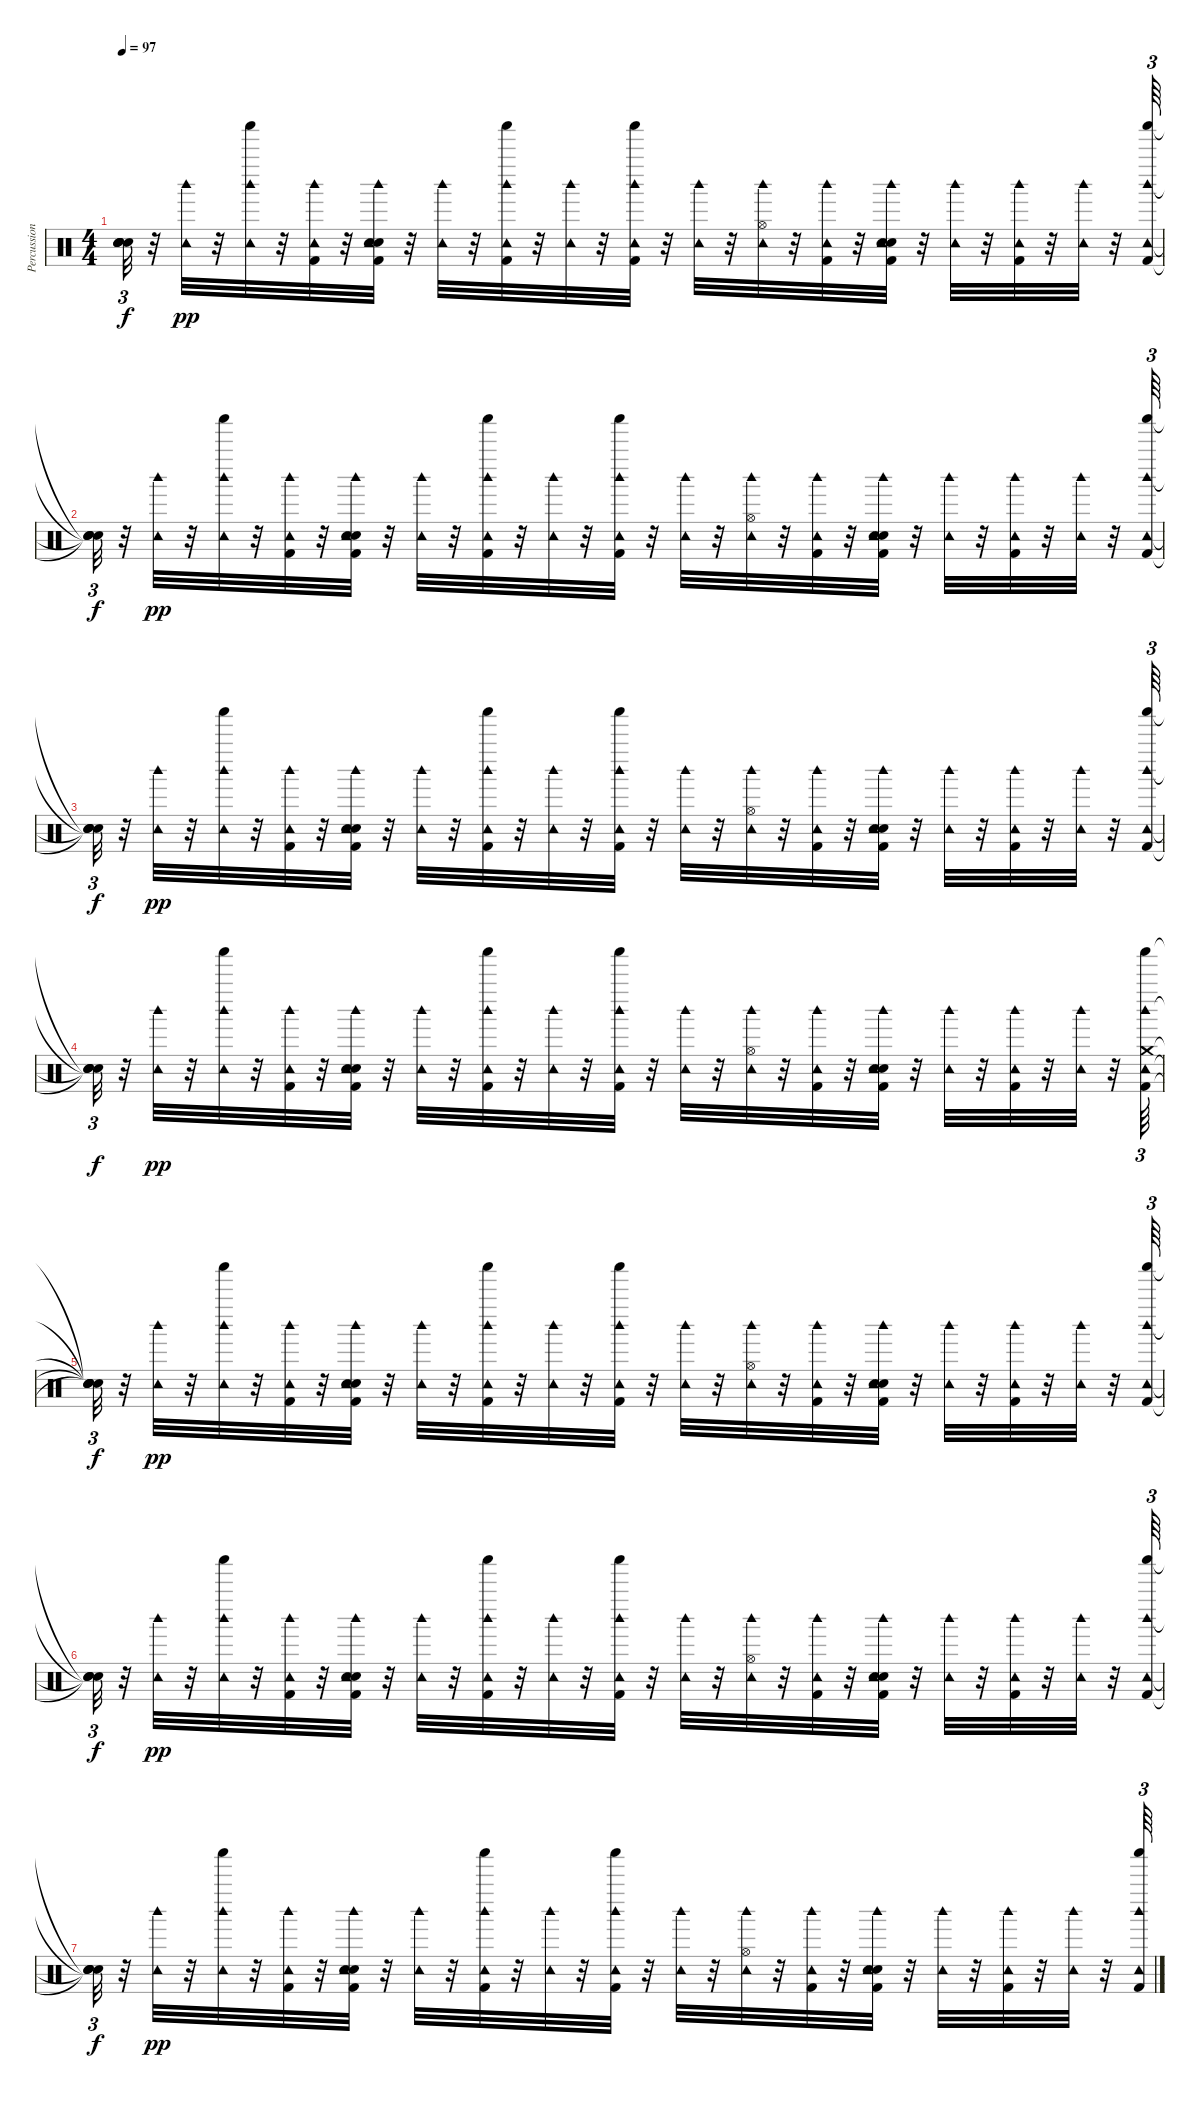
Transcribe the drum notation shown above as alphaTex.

\track ("Percussion" "Percussion") {instrument percussion}
\staff {score}
\articulation defaults
\ts (4 4)
\tempo 97
\clef neutral
\ks c
("Snare (hit)"{t} "Snare (hit)"{t} "Snare (hit)"{t} "Snare (hit)"{t} "Snare (hit)"{t}).32{tu (3 2) dy f} r.32 ("Tambourine (hit)" "Woodblock high (hit)").32{dy pp} r.32 ("Tambourine (hit)" "Shaker (hit)" "Woodblock high (hit)").32 r.32 ("Kick (hit) 2" "Tambourine (hit)" "Woodblock high (hit)").32 r.32 ("Kick (hit) 2" "Snare (hit) 2" "Hand Clap (hit)" "Tambourine (hit)" "Woodblock high (hit)").32 r.32 ("Tambourine (hit)" "Woodblock high (hit)").32 r.32 ("Kick (hit) 2" "Tambourine (hit)" "Shaker (hit)" "Woodblock high (hit)").32 r.32 ("Tambourine (hit)" "Woodblock high (hit)").32 r.32 ("Kick (hit) 2" "Tambourine (hit)" "Shaker (hit)" "Woodblock high (hit)").32 r.32 ("Tambourine (hit)" "Woodblock high (hit)").32 r.32 ("Hi-Hat (open)" "Tambourine (hit)" "Woodblock high (hit)").32 r.32 ("Kick (hit) 2" "Tambourine (hit)" "Woodblock high (hit)").32 r.32 ("Kick (hit) 2" "Snare (hit) 2" "Hand Clap (hit)" "Tambourine (hit)" "Woodblock high (hit)").32 r.32 ("Tambourine (hit)" "Woodblock high (hit)").32 r.32 ("Kick (hit) 2" "Tambourine (hit)" "Woodblock high (hit)").32 r.32 ("Tambourine (hit)" "Woodblock high (hit)").32 r.32 ("Kick (hit) 2" "Tambourine (hit)" "Shaker (hit)" "Woodblock high (hit)").64{tu (3 2)} |
("Snare (hit)"{t} "Snare (hit)"{t} "Snare (hit)"{t} "Snare (hit)"{t}).32{tu (3 2) dy f} r.32 ("Tambourine (hit)" "Woodblock high (hit)").32{dy pp} r.32 ("Tambourine (hit)" "Shaker (hit)" "Woodblock high (hit)").32 r.32 ("Kick (hit) 2" "Tambourine (hit)" "Woodblock high (hit)").32 r.32 ("Kick (hit) 2" "Snare (hit) 2" "Hand Clap (hit)" "Tambourine (hit)" "Woodblock high (hit)").32 r.32 ("Tambourine (hit)" "Woodblock high (hit)").32 r.32 ("Kick (hit) 2" "Tambourine (hit)" "Shaker (hit)" "Woodblock high (hit)").32 r.32 ("Tambourine (hit)" "Woodblock high (hit)").32 r.32 ("Kick (hit) 2" "Tambourine (hit)" "Shaker (hit)" "Woodblock high (hit)").32 r.32 ("Tambourine (hit)" "Woodblock high (hit)").32 r.32 ("Hi-Hat (open)" "Tambourine (hit)" "Woodblock high (hit)").32 r.32 ("Kick (hit) 2" "Tambourine (hit)" "Woodblock high (hit)").32 r.32 ("Kick (hit) 2" "Snare (hit) 2" "Hand Clap (hit)" "Tambourine (hit)" "Woodblock high (hit)").32 r.32 ("Tambourine (hit)" "Woodblock high (hit)").32 r.32 ("Kick (hit) 2" "Tambourine (hit)" "Woodblock high (hit)").32 r.32 ("Tambourine (hit)" "Woodblock high (hit)").32 r.32 ("Kick (hit) 2" "Tambourine (hit)" "Shaker (hit)" "Woodblock high (hit)").64{tu (3 2)} |
("Snare (hit)"{t} "Snare (hit)"{t} "Snare (hit)"{t} "Snare (hit)"{t}).32{tu (3 2) dy f} r.32 ("Tambourine (hit)" "Woodblock high (hit)").32{dy pp} r.32 ("Tambourine (hit)" "Shaker (hit)" "Woodblock high (hit)").32 r.32 ("Kick (hit) 2" "Tambourine (hit)" "Woodblock high (hit)").32 r.32 ("Kick (hit) 2" "Snare (hit) 2" "Hand Clap (hit)" "Tambourine (hit)" "Woodblock high (hit)").32 r.32 ("Tambourine (hit)" "Woodblock high (hit)").32 r.32 ("Kick (hit) 2" "Tambourine (hit)" "Shaker (hit)" "Woodblock high (hit)").32 r.32 ("Tambourine (hit)" "Woodblock high (hit)").32 r.32 ("Kick (hit) 2" "Tambourine (hit)" "Shaker (hit)" "Woodblock high (hit)").32 r.32 ("Tambourine (hit)" "Woodblock high (hit)").32 r.32 ("Hi-Hat (open)" "Tambourine (hit)" "Woodblock high (hit)").32 r.32 ("Kick (hit) 2" "Tambourine (hit)" "Woodblock high (hit)").32 r.32 ("Kick (hit) 2" "Snare (hit) 2" "Hand Clap (hit)" "Tambourine (hit)" "Woodblock high (hit)").32 r.32 ("Tambourine (hit)" "Woodblock high (hit)").32 r.32 ("Kick (hit) 2" "Tambourine (hit)" "Woodblock high (hit)").32 r.32 ("Tambourine (hit)" "Woodblock high (hit)").32 r.32 ("Kick (hit) 2" "Tambourine (hit)" "Shaker (hit)" "Woodblock high (hit)").64{tu (3 2)} |
("Snare (hit)"{t} "Snare (hit)"{t} "Snare (hit)"{t} "Snare (hit)"{t}).32{tu (3 2) dy f} r.32 ("Tambourine (hit)" "Woodblock high (hit)").32{dy pp} r.32 ("Tambourine (hit)" "Shaker (hit)" "Woodblock high (hit)").32 r.32 ("Kick (hit) 2" "Tambourine (hit)" "Woodblock high (hit)").32 r.32 ("Kick (hit) 2" "Snare (hit) 2" "Hand Clap (hit)" "Tambourine (hit)" "Woodblock high (hit)").32 r.32 ("Tambourine (hit)" "Woodblock high (hit)").32 r.32 ("Kick (hit) 2" "Tambourine (hit)" "Shaker (hit)" "Woodblock high (hit)").32 r.32 ("Tambourine (hit)" "Woodblock high (hit)").32 r.32 ("Kick (hit) 2" "Tambourine (hit)" "Shaker (hit)" "Woodblock high (hit)").32 r.32 ("Tambourine (hit)" "Woodblock high (hit)").32 r.32 ("Hi-Hat (open)" "Tambourine (hit)" "Woodblock high (hit)").32 r.32 ("Kick (hit) 2" "Tambourine (hit)" "Woodblock high (hit)").32 r.32 ("Kick (hit) 2" "Snare (hit) 2" "Hand Clap (hit)" "Tambourine (hit)" "Woodblock high (hit)").32 r.32 ("Tambourine (hit)" "Woodblock high (hit)").32 r.32 ("Kick (hit) 2" "Tambourine (hit)" "Woodblock high (hit)").32 r.32 ("Tambourine (hit)" "Woodblock high (hit)").32 r.32 ("Kick (hit) 2" "Tambourine (hit)" "Crash medium (hit)" "Shaker (hit)" "Woodblock high (hit)").64{tu (3 2)} |
("Snare (hit)"{t} "Snare (hit)"{t} "Snare (hit)"{t} "Snare (hit)"{t} "Snare (hit)"{t}).32{tu (3 2) dy f} r.32 ("Tambourine (hit)" "Woodblock high (hit)").32{dy pp} r.32 ("Tambourine (hit)" "Shaker (hit)" "Woodblock high (hit)").32 r.32 ("Kick (hit) 2" "Tambourine (hit)" "Woodblock high (hit)").32 r.32 ("Kick (hit) 2" "Snare (hit) 2" "Hand Clap (hit)" "Tambourine (hit)" "Woodblock high (hit)").32 r.32 ("Tambourine (hit)" "Woodblock high (hit)").32 r.32 ("Kick (hit) 2" "Tambourine (hit)" "Shaker (hit)" "Woodblock high (hit)").32 r.32 ("Tambourine (hit)" "Woodblock high (hit)").32 r.32 ("Kick (hit) 2" "Tambourine (hit)" "Shaker (hit)" "Woodblock high (hit)").32 r.32 ("Tambourine (hit)" "Woodblock high (hit)").32 r.32 ("Hi-Hat (open)" "Tambourine (hit)" "Woodblock high (hit)").32 r.32 ("Kick (hit) 2" "Tambourine (hit)" "Woodblock high (hit)").32 r.32 ("Kick (hit) 2" "Snare (hit) 2" "Hand Clap (hit)" "Tambourine (hit)" "Woodblock high (hit)").32 r.32 ("Tambourine (hit)" "Woodblock high (hit)").32 r.32 ("Kick (hit) 2" "Tambourine (hit)" "Woodblock high (hit)").32 r.32 ("Tambourine (hit)" "Woodblock high (hit)").32 r.32 ("Kick (hit) 2" "Tambourine (hit)" "Shaker (hit)" "Woodblock high (hit)").64{tu (3 2)} |
("Snare (hit)"{t} "Snare (hit)"{t} "Snare (hit)"{t} "Snare (hit)"{t}).32{tu (3 2) dy f} r.32 ("Tambourine (hit)" "Woodblock high (hit)").32{dy pp} r.32 ("Tambourine (hit)" "Shaker (hit)" "Woodblock high (hit)").32 r.32 ("Kick (hit) 2" "Tambourine (hit)" "Woodblock high (hit)").32 r.32 ("Kick (hit) 2" "Snare (hit) 2" "Hand Clap (hit)" "Tambourine (hit)" "Woodblock high (hit)").32 r.32 ("Tambourine (hit)" "Woodblock high (hit)").32 r.32 ("Kick (hit) 2" "Tambourine (hit)" "Shaker (hit)" "Woodblock high (hit)").32 r.32 ("Tambourine (hit)" "Woodblock high (hit)").32 r.32 ("Kick (hit) 2" "Tambourine (hit)" "Shaker (hit)" "Woodblock high (hit)").32 r.32 ("Tambourine (hit)" "Woodblock high (hit)").32 r.32 ("Hi-Hat (open)" "Tambourine (hit)" "Woodblock high (hit)").32 r.32 ("Kick (hit) 2" "Tambourine (hit)" "Woodblock high (hit)").32 r.32 ("Kick (hit) 2" "Snare (hit) 2" "Hand Clap (hit)" "Tambourine (hit)" "Woodblock high (hit)").32 r.32 ("Tambourine (hit)" "Woodblock high (hit)").32 r.32 ("Kick (hit) 2" "Tambourine (hit)" "Woodblock high (hit)").32 r.32 ("Tambourine (hit)" "Woodblock high (hit)").32 r.32 ("Kick (hit) 2" "Tambourine (hit)" "Shaker (hit)" "Woodblock high (hit)").64{tu (3 2)} |
("Snare (hit)"{t} "Snare (hit)"{t} "Snare (hit)"{t} "Snare (hit)"{t}).32{tu (3 2) dy f} r.32 ("Tambourine (hit)" "Woodblock high (hit)").32{dy pp} r.32 ("Tambourine (hit)" "Shaker (hit)" "Woodblock high (hit)").32 r.32 ("Kick (hit) 2" "Tambourine (hit)" "Woodblock high (hit)").32 r.32 ("Kick (hit) 2" "Snare (hit) 2" "Hand Clap (hit)" "Tambourine (hit)" "Woodblock high (hit)").32 r.32 ("Tambourine (hit)" "Woodblock high (hit)").32 r.32 ("Kick (hit) 2" "Tambourine (hit)" "Shaker (hit)" "Woodblock high (hit)").32 r.32 ("Tambourine (hit)" "Woodblock high (hit)").32 r.32 ("Kick (hit) 2" "Tambourine (hit)" "Shaker (hit)" "Woodblock high (hit)").32 r.32 ("Tambourine (hit)" "Woodblock high (hit)").32 r.32 ("Hi-Hat (open)" "Tambourine (hit)" "Woodblock high (hit)").32 r.32 ("Kick (hit) 2" "Tambourine (hit)" "Woodblock high (hit)").32 r.32 ("Kick (hit) 2" "Snare (hit) 2" "Hand Clap (hit)" "Tambourine (hit)" "Woodblock high (hit)").32 r.32 ("Tambourine (hit)" "Woodblock high (hit)").32 r.32 ("Kick (hit) 2" "Tambourine (hit)" "Woodblock high (hit)").32 r.32 ("Tambourine (hit)" "Woodblock high (hit)").32 r.32 ("Kick (hit) 2" "Tambourine (hit)" "Shaker (hit)" "Woodblock high (hit)").64{tu (3 2)}
